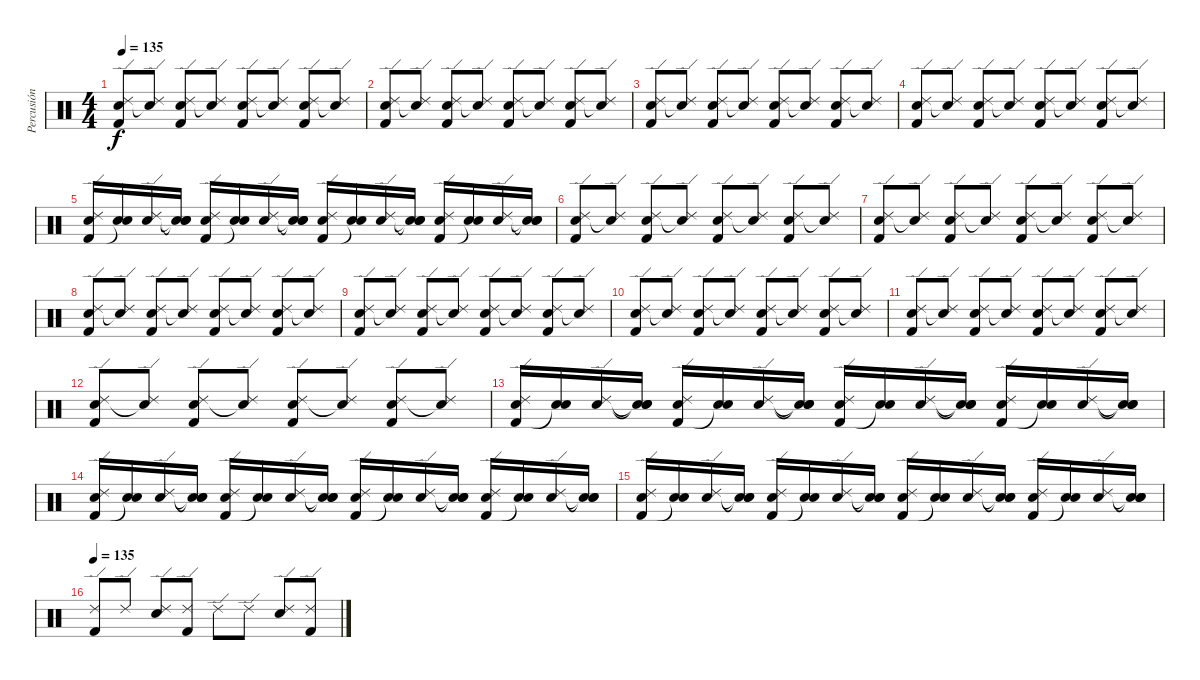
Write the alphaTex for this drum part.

\track ("Percusión" "Percusión") {instrument percussion}
\staff {score}
\articulation defaults
\ts (4 4)
\tempo 135
\clef neutral
\ks c
("Kick (hit) 2" "Ride (edge) 2" "Electric Snare (hit)").8{dy f} ("Ride (edge) 2" "Snare (hit)"{t}).8 ("Kick (hit) 2" "Ride (edge) 2" "Electric Snare (hit)").8 ("Ride (edge) 2" "Snare (hit)"{t}).8 ("Kick (hit) 2" "Ride (edge) 2" "Electric Snare (hit)").8 ("Ride (edge) 2" "Snare (hit)"{t}).8 ("Kick (hit) 2" "Ride (edge) 2" "Electric Snare (hit)").8 ("Ride (edge) 2" "Snare (hit)"{t}).8 |
("Kick (hit) 2" "Ride (edge) 2" "Electric Snare (hit)").8 ("Ride (edge) 2" "Snare (hit)"{t}).8 ("Kick (hit) 2" "Ride (edge) 2" "Electric Snare (hit)").8 ("Ride (edge) 2" "Snare (hit)"{t}).8 ("Kick (hit) 2" "Ride (edge) 2" "Electric Snare (hit)").8 ("Ride (edge) 2" "Snare (hit)"{t}).8 ("Kick (hit) 2" "Ride (edge) 2" "Electric Snare (hit)").8 ("Ride (edge) 2" "Snare (hit)"{t}).8 |
("Kick (hit) 2" "Ride (edge) 2" "Electric Snare (hit)").8 ("Ride (edge) 2" "Snare (hit)"{t}).8 ("Kick (hit) 2" "Ride (edge) 2" "Electric Snare (hit)").8 ("Ride (edge) 2" "Snare (hit)"{t}).8 ("Kick (hit) 2" "Ride (edge) 2" "Electric Snare (hit)").8 ("Ride (edge) 2" "Snare (hit)"{t}).8 ("Kick (hit) 2" "Ride (edge) 2" "Electric Snare (hit)").8 ("Ride (edge) 2" "Snare (hit)"{t}).8 |
("Kick (hit) 2" "Ride (edge) 2" "Electric Snare (hit)").8 ("Ride (edge) 2" "Snare (hit)"{t}).8 ("Kick (hit) 2" "Ride (edge) 2" "Electric Snare (hit)").8 ("Ride (edge) 2" "Snare (hit)"{t}).8 ("Kick (hit) 2" "Ride (edge) 2" "Electric Snare (hit)").8 ("Ride (edge) 2" "Snare (hit)"{t}).8 ("Kick (hit) 2" "Ride (edge) 2" "Electric Snare (hit)").8 ("Ride (edge) 2" "Snare (hit)"{t}).8 |
("Kick (hit) 2" "Ride (edge) 2" "Electric Snare (hit)").16 ("Snare (hit)"{t} "Electric Snare (hit)").16 ("Ride (edge) 2" "Electric Snare (hit)").16 ("Snare (hit)"{t} "Snare (hit)"{t} "Electric Snare (hit)").16 ("Kick (hit) 2" "Ride (edge) 2" "Electric Snare (hit)").16 ("Snare (hit)"{t} "Electric Snare (hit)").16 ("Ride (edge) 2" "Electric Snare (hit)").16 ("Snare (hit)"{t} "Snare (hit)"{t} "Electric Snare (hit)").16 ("Kick (hit) 2" "Ride (edge) 2" "Electric Snare (hit)").16 ("Snare (hit)"{t} "Electric Snare (hit)").16 ("Ride (edge) 2" "Electric Snare (hit)").16 ("Snare (hit)"{t} "Snare (hit)"{t} "Electric Snare (hit)").16 ("Kick (hit) 2" "Ride (edge) 2" "Electric Snare (hit)").16 ("Snare (hit)"{t} "Electric Snare (hit)").16 ("Ride (edge) 2" "Electric Snare (hit)").16 ("Snare (hit)"{t} "Snare (hit)"{t} "Electric Snare (hit)").16 |
("Kick (hit) 2" "Ride (edge) 2" "Electric Snare (hit)").8 ("Ride (edge) 2" "Snare (hit)"{t}).8 ("Kick (hit) 2" "Ride (edge) 2" "Electric Snare (hit)").8 ("Ride (edge) 2" "Snare (hit)"{t}).8 ("Kick (hit) 2" "Ride (edge) 2" "Electric Snare (hit)").8 ("Ride (edge) 2" "Snare (hit)"{t}).8 ("Kick (hit) 2" "Ride (edge) 2" "Electric Snare (hit)").8 ("Ride (edge) 2" "Snare (hit)"{t}).8 |
("Kick (hit) 2" "Ride (edge) 2" "Electric Snare (hit)").8 ("Ride (edge) 2" "Snare (hit)"{t}).8 ("Kick (hit) 2" "Ride (edge) 2" "Electric Snare (hit)").8 ("Ride (edge) 2" "Snare (hit)"{t}).8 ("Kick (hit) 2" "Ride (edge) 2" "Electric Snare (hit)").8 ("Ride (edge) 2" "Snare (hit)"{t}).8 ("Kick (hit) 2" "Ride (edge) 2" "Electric Snare (hit)").8 ("Ride (edge) 2" "Snare (hit)"{t}).8 |
("Kick (hit) 2" "Ride (edge) 2" "Electric Snare (hit)").8 ("Ride (edge) 2" "Snare (hit)"{t}).8 ("Kick (hit) 2" "Ride (edge) 2" "Electric Snare (hit)").8 ("Ride (edge) 2" "Snare (hit)"{t}).8 ("Kick (hit) 2" "Ride (edge) 2" "Electric Snare (hit)").8 ("Ride (edge) 2" "Snare (hit)"{t}).8 ("Kick (hit) 2" "Ride (edge) 2" "Electric Snare (hit)").8 ("Ride (edge) 2" "Snare (hit)"{t}).8 |
("Kick (hit) 2" "Ride (edge) 2" "Electric Snare (hit)").8 ("Ride (edge) 2" "Snare (hit)"{t}).8 ("Kick (hit) 2" "Ride (edge) 2" "Electric Snare (hit)").8 ("Ride (edge) 2" "Snare (hit)"{t}).8 ("Kick (hit) 2" "Ride (edge) 2" "Electric Snare (hit)").8 ("Ride (edge) 2" "Snare (hit)"{t}).8 ("Kick (hit) 2" "Ride (edge) 2" "Electric Snare (hit)").8 ("Ride (edge) 2" "Snare (hit)"{t}).8 |
("Kick (hit) 2" "Ride (edge) 2" "Electric Snare (hit)").8 ("Ride (edge) 2" "Snare (hit)"{t}).8 ("Kick (hit) 2" "Ride (edge) 2" "Electric Snare (hit)").8 ("Ride (edge) 2" "Snare (hit)"{t}).8 ("Kick (hit) 2" "Ride (edge) 2" "Electric Snare (hit)").8 ("Ride (edge) 2" "Snare (hit)"{t}).8 ("Kick (hit) 2" "Ride (edge) 2" "Electric Snare (hit)").8 ("Ride (edge) 2" "Snare (hit)"{t}).8 |
("Kick (hit) 2" "Ride (edge) 2" "Electric Snare (hit)").8 ("Ride (edge) 2" "Snare (hit)"{t}).8 ("Kick (hit) 2" "Ride (edge) 2" "Electric Snare (hit)").8 ("Ride (edge) 2" "Snare (hit)"{t}).8 ("Kick (hit) 2" "Ride (edge) 2" "Electric Snare (hit)").8 ("Ride (edge) 2" "Snare (hit)"{t}).8 ("Kick (hit) 2" "Ride (edge) 2" "Electric Snare (hit)").8 ("Ride (edge) 2" "Snare (hit)"{t}).8 |
("Kick (hit) 2" "Ride (edge) 2" "Electric Snare (hit)").8 ("Ride (edge) 2" "Snare (hit)"{t}).8 ("Kick (hit) 2" "Ride (edge) 2" "Electric Snare (hit)").8 ("Ride (edge) 2" "Snare (hit)"{t}).8 ("Kick (hit) 2" "Ride (edge) 2" "Electric Snare (hit)").8 ("Ride (edge) 2" "Snare (hit)"{t}).8 ("Kick (hit) 2" "Ride (edge) 2" "Electric Snare (hit)").8 ("Ride (edge) 2" "Snare (hit)"{t}).8 |
("Kick (hit) 2" "Ride (edge) 2" "Electric Snare (hit)").16 ("Snare (hit)"{t} "Electric Snare (hit)").16 ("Ride (edge) 2" "Electric Snare (hit)").16 ("Snare (hit)"{t} "Snare (hit)"{t} "Electric Snare (hit)").16 ("Kick (hit) 2" "Ride (edge) 2" "Electric Snare (hit)").16 ("Snare (hit)"{t} "Electric Snare (hit)").16 ("Ride (edge) 2" "Electric Snare (hit)").16 ("Snare (hit)"{t} "Snare (hit)"{t} "Electric Snare (hit)").16 ("Kick (hit) 2" "Ride (edge) 2" "Electric Snare (hit)").16 ("Snare (hit)"{t} "Electric Snare (hit)").16 ("Ride (edge) 2" "Electric Snare (hit)").16 ("Snare (hit)"{t} "Snare (hit)"{t} "Electric Snare (hit)").16 ("Kick (hit) 2" "Ride (edge) 2" "Electric Snare (hit)").16 ("Snare (hit)"{t} "Electric Snare (hit)").16 ("Ride (edge) 2" "Electric Snare (hit)").16 ("Snare (hit)"{t} "Snare (hit)"{t} "Electric Snare (hit)").16 |
("Kick (hit) 2" "Ride (edge) 2" "Electric Snare (hit)").16 ("Snare (hit)"{t} "Electric Snare (hit)").16 ("Ride (edge) 2" "Electric Snare (hit)").16 ("Snare (hit)"{t} "Snare (hit)"{t} "Electric Snare (hit)").16 ("Kick (hit) 2" "Ride (edge) 2" "Electric Snare (hit)").16 ("Snare (hit)"{t} "Electric Snare (hit)").16 ("Ride (edge) 2" "Electric Snare (hit)").16 ("Snare (hit)"{t} "Snare (hit)"{t} "Electric Snare (hit)").16 ("Kick (hit) 2" "Ride (edge) 2" "Electric Snare (hit)").16 ("Snare (hit)"{t} "Electric Snare (hit)").16 ("Ride (edge) 2" "Electric Snare (hit)").16 ("Snare (hit)"{t} "Snare (hit)"{t} "Electric Snare (hit)").16 ("Kick (hit) 2" "Ride (edge) 2" "Electric Snare (hit)").16 ("Snare (hit)"{t} "Electric Snare (hit)").16 ("Ride (edge) 2" "Electric Snare (hit)").16 ("Snare (hit)"{t} "Snare (hit)"{t} "Electric Snare (hit)").16 |
("Kick (hit) 2" "Ride (edge) 2" "Electric Snare (hit)").16 ("Snare (hit)"{t} "Electric Snare (hit)").16 ("Ride (edge) 2" "Electric Snare (hit)").16 ("Snare (hit)"{t} "Snare (hit)"{t} "Electric Snare (hit)").16 ("Kick (hit) 2" "Ride (edge) 2" "Electric Snare (hit)").16 ("Snare (hit)"{t} "Electric Snare (hit)").16 ("Ride (edge) 2" "Electric Snare (hit)").16 ("Snare (hit)"{t} "Snare (hit)"{t} "Electric Snare (hit)").16 ("Kick (hit) 2" "Ride (edge) 2" "Electric Snare (hit)").16 ("Snare (hit)"{t} "Electric Snare (hit)").16 ("Ride (edge) 2" "Electric Snare (hit)").16 ("Snare (hit)"{t} "Snare (hit)"{t} "Electric Snare (hit)").16 ("Kick (hit) 2" "Ride (edge) 2" "Electric Snare (hit)").16 ("Snare (hit)"{t} "Electric Snare (hit)").16 ("Ride (edge) 2" "Electric Snare (hit)").16 ("Snare (hit)"{t} "Snare (hit)"{t} "Electric Snare (hit)").16 |
\tempo 135
("Kick (hit) 2" "Ride (edge) 2").8 "Ride (edge) 2".8 ("Ride (edge) 2" "Electric Snare (hit)").8 ("Kick (hit) 2" "Ride (edge) 2").8 "Ride (edge) 2".8 "Ride (edge) 2".8 ("Ride (edge) 2" "Electric Snare (hit)").8 ("Kick (hit) 2" "Ride (edge) 2").8
